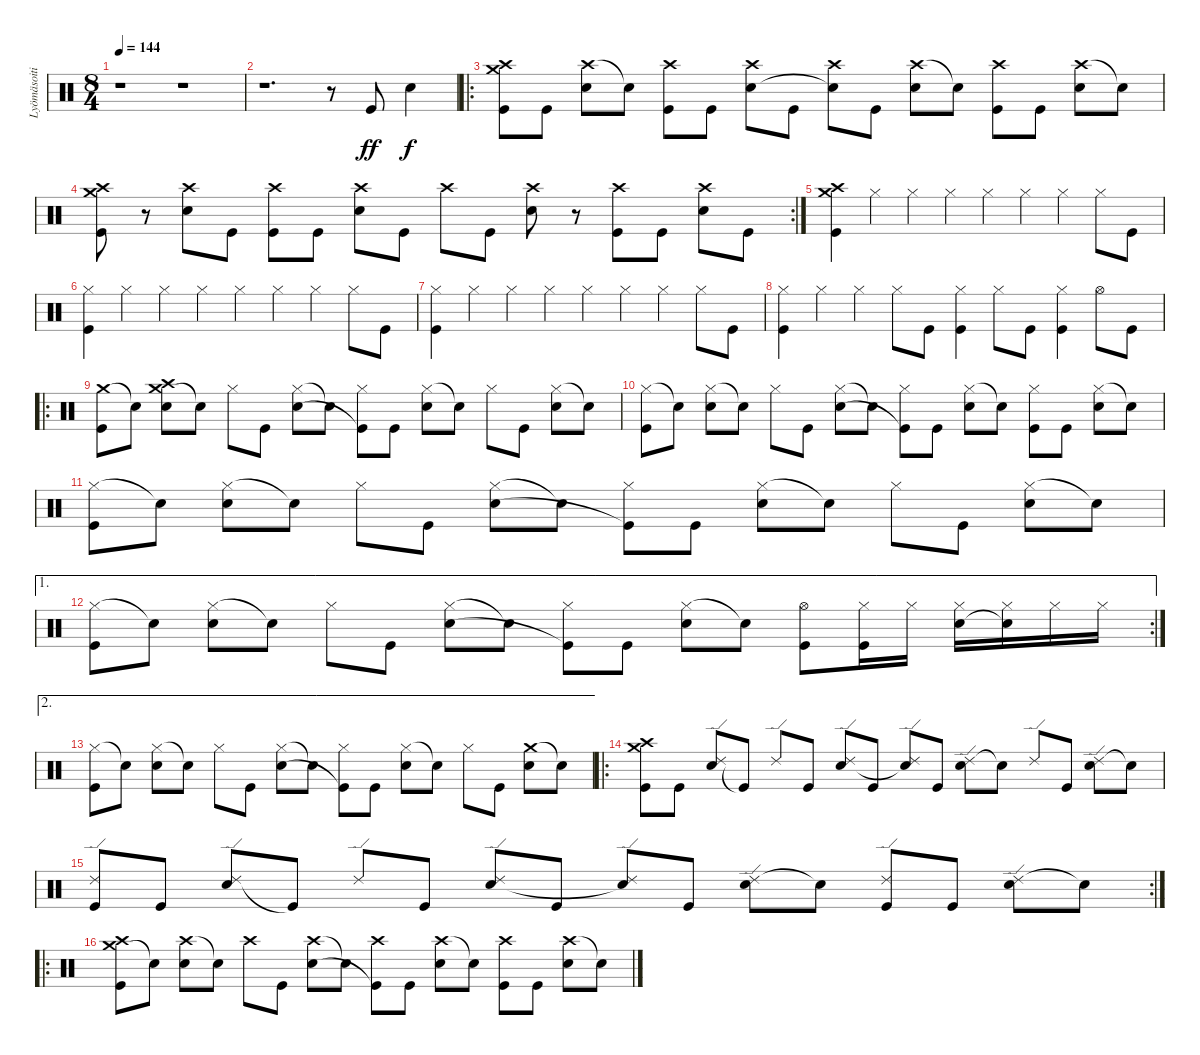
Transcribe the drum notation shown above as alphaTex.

\track ("Lyömäsoitin" "Lyömäsoiti") {instrument percussion}
\staff {score}
\articulation defaults
\ts (8 4)
\tempo 144
\clef neutral
\ks c
r.1{dy ff} r.1 |
r.1{d} r.8 "Kick (hit)".8 "Snare (hit) 2".4{dy f} |
\ro
("Crash medium (hit)" "Crash high (hit)" "Kick (hit)").8 "Kick (hit)".8 ("Crash high (hit)" "Snare (hit) 2").8 "Snare (hit)"{t}.8 ("Crash high (hit)" "Kick (hit)").8 "Kick (hit)".8 ("Crash high (hit)" "Snare (hit) 2").8 "Kick (hit)".8 ("Crash high (hit)" "Snare (hit)"{t}).8 "Kick (hit)".8 ("Crash high (hit)" "Snare (hit) 2").8 "Snare (hit)"{t}.8 ("Crash high (hit)" "Kick (hit)").8 "Kick (hit)".8 ("Crash high (hit)" "Snare (hit) 2").8 "Snare (hit)"{t}.8 |
\rc 2
("Crash medium (hit)" "Crash high (hit)" "Kick (hit)").8 r.8 ("Crash high (hit)" "Snare (hit) 2").8 "Kick (hit)".8 ("Crash high (hit)" "Kick (hit)").8 "Kick (hit)".8 ("Crash high (hit)" "Snare (hit) 2").8 "Kick (hit)".8 "Crash high (hit)".8 "Kick (hit)".8 ("Crash high (hit)" "Snare (hit) 2").8 r.8 ("Crash high (hit)" "Kick (hit)").8 "Kick (hit)".8 ("Crash high (hit)" "Snare (hit) 2").8 "Kick (hit)".8 |
("Crash medium (hit)" "Crash high (hit)" "Kick (hit)").4 "Hi-Hat (closed)".4 "Hi-Hat (closed)".4 "Hi-Hat (closed)".4 "Hi-Hat (closed)".4 "Hi-Hat (closed)".4 "Hi-Hat (closed)".4 "Hi-Hat (closed)".8 "Kick (hit)".8 |
("Hi-Hat (closed)" "Kick (hit)").4 "Hi-Hat (closed)".4 "Hi-Hat (closed)".4 "Hi-Hat (closed)".4 "Hi-Hat (closed)".4 "Hi-Hat (closed)".4 "Hi-Hat (closed)".4 "Hi-Hat (closed)".8 "Kick (hit)".8 |
("Hi-Hat (closed)" "Kick (hit)").4 "Hi-Hat (closed)".4 "Hi-Hat (closed)".4 "Hi-Hat (closed)".4 "Hi-Hat (closed)".4 "Hi-Hat (closed)".4 "Hi-Hat (closed)".4 "Hi-Hat (closed)".8 "Kick (hit)".8 |
("Hi-Hat (closed)" "Kick (hit)").4 "Hi-Hat (closed)".4 "Hi-Hat (closed)".4 "Hi-Hat (closed)".8 "Kick (hit)".8 ("Hi-Hat (closed)" "Kick (hit)").4 "Hi-Hat (closed)".8 "Kick (hit)".8 ("Hi-Hat (closed)" "Kick (hit)").4 "Hi-Hat (open)".8 "Kick (hit)".8 |
\ro
("Crash medium (hit)" "Kick (hit)").8 "Snare (hit)"{t}.8 ("Crash medium (hit)" "Crash high (hit)" "Snare (hit) 2").8 "Snare (hit)"{t}.8 "Hi-Hat (closed)".8 "Kick (hit)".8 ("Hi-Hat (closed)" "Snare (hit) 2").8 "Snare (hit)"{t}.8 ("Hi-Hat (closed)" "Kick (hit)"{t}).8 "Kick (hit)".8 ("Hi-Hat (closed)" "Snare (hit) 2").8 "Snare (hit)"{t}.8 "Hi-Hat (closed)".8 "Kick (hit)".8 ("Hi-Hat (closed)" "Snare (hit) 2").8 "Snare (hit)"{t}.8 |
("Hi-Hat (closed)" "Kick (hit)").8 "Snare (hit)"{t}.8 ("Hi-Hat (closed)" "Snare (hit) 2").8 "Snare (hit)"{t}.8 "Hi-Hat (closed)".8 "Kick (hit)".8 ("Hi-Hat (closed)" "Snare (hit) 2").8 "Snare (hit)"{t}.8 ("Hi-Hat (closed)" "Kick (hit)"{t}).8 "Kick (hit)".8 ("Hi-Hat (closed)" "Snare (hit) 2").8 "Snare (hit)"{t}.8 ("Hi-Hat (closed)" "Kick (hit)").8 "Kick (hit)".8 ("Hi-Hat (closed)" "Snare (hit) 2").8 "Snare (hit)"{t}.8 |
("Hi-Hat (closed)" "Kick (hit)").8 "Snare (hit)"{t}.8 ("Hi-Hat (closed)" "Snare (hit) 2").8 "Snare (hit)"{t}.8 "Hi-Hat (closed)".8 "Kick (hit)".8 ("Hi-Hat (closed)" "Snare (hit) 2").8 "Snare (hit)"{t}.8 ("Hi-Hat (closed)" "Kick (hit)"{t}).8 "Kick (hit)".8 ("Hi-Hat (closed)" "Snare (hit) 2").8 "Snare (hit)"{t}.8 "Hi-Hat (closed)".8 "Kick (hit)".8 ("Hi-Hat (closed)" "Snare (hit) 2").8 "Snare (hit)"{t}.8 |
\ae 1
\rc 2
("Hi-Hat (closed)" "Kick (hit)").8 "Snare (hit)"{t}.8 ("Hi-Hat (closed)" "Snare (hit) 2").8 "Snare (hit)"{t}.8 "Hi-Hat (closed)".8 "Kick (hit)".8 ("Hi-Hat (closed)" "Snare (hit) 2").8 "Snare (hit)"{t}.8 ("Hi-Hat (closed)" "Kick (hit)"{t}).8 "Kick (hit)".8 ("Hi-Hat (closed)" "Snare (hit) 2").8 "Snare (hit)"{t}.8 ("Hi-Hat (open)" "Kick (hit)").8 ("Hi-Hat (closed)" "Kick (hit)").16 "Hi-Hat (closed)".16 ("Hi-Hat (closed)" "Snare (hit) 2").16 ("Hi-Hat (closed)" "Snare (hit)"{t}).16 "Hi-Hat (closed)".16 "Hi-Hat (closed)".16 |
\ae 2
("Hi-Hat (closed)" "Kick (hit)").8 "Snare (hit)"{t}.8 ("Hi-Hat (closed)" "Snare (hit) 2").8 "Snare (hit)"{t}.8 "Hi-Hat (closed)".8 "Kick (hit)".8 ("Hi-Hat (closed)" "Snare (hit) 2").8 "Snare (hit)"{t}.8 ("Hi-Hat (closed)" "Kick (hit)"{t}).8 "Kick (hit)".8 ("Hi-Hat (closed)" "Snare (hit) 2").8 "Snare (hit)"{t}.8 "Hi-Hat (closed)".8 "Kick (hit)".8 ("Crash medium (hit)" "Snare (hit) 2").8 "Snare (hit)"{t}.8 |
\ro
("Crash medium (hit)" "Crash high (hit)" "Kick (hit)").8 "Kick (hit)".8 ("Ride (edge) 2" "Snare (hit) 2").8 "Kick (hit)"{t}.8 "Ride (edge) 2".8 "Kick (hit)".8 ("Ride (edge) 2" "Snare (hit) 2").8 "Kick (hit)".8 ("Ride (edge) 2" "Snare (hit)"{t}).8 "Kick (hit)".8 ("Ride (edge) 2" "Snare (hit) 2").8 "Snare (hit)"{t}.8 "Ride (edge) 2".8 "Kick (hit)".8 ("Ride (edge) 2" "Snare (hit) 2").8 "Snare (hit)"{t}.8 |
\rc 2
("Ride (edge) 2" "Kick (hit)").8 "Kick (hit)".8 ("Ride (edge) 2" "Snare (hit) 2").8 "Kick (hit)"{t}.8 "Ride (edge) 2".8 "Kick (hit)".8 ("Ride (edge) 2" "Snare (hit) 2").8 "Kick (hit)".8 ("Ride (edge) 2" "Snare (hit)"{t}).8 "Kick (hit)".8 ("Ride (edge) 2" "Snare (hit) 2").8 "Snare (hit)"{t}.8 ("Ride (edge) 2" "Kick (hit)").8 "Kick (hit)".8 ("Ride (edge) 2" "Snare (hit) 2").8 "Snare (hit)"{t}.8 |
\ro
("Crash medium (hit)" "Crash high (hit)" "Kick (hit)").8 "Snare (hit)"{t}.8 ("Crash high (hit)" "Snare (hit) 2").8 "Snare (hit)"{t}.8 "Crash high (hit)".8 "Kick (hit)".8 ("Crash high (hit)" "Snare (hit) 2").8 "Snare (hit)"{t}.8 ("Crash high (hit)" "Kick (hit)"{t}).8 "Kick (hit)".8 ("Crash high (hit)" "Snare (hit) 2").8 "Snare (hit)"{t}.8 ("Crash high (hit)" "Kick (hit)").8 "Kick (hit)".8 ("Crash high (hit)" "Snare (hit) 2").8 "Snare (hit)"{t}.8
